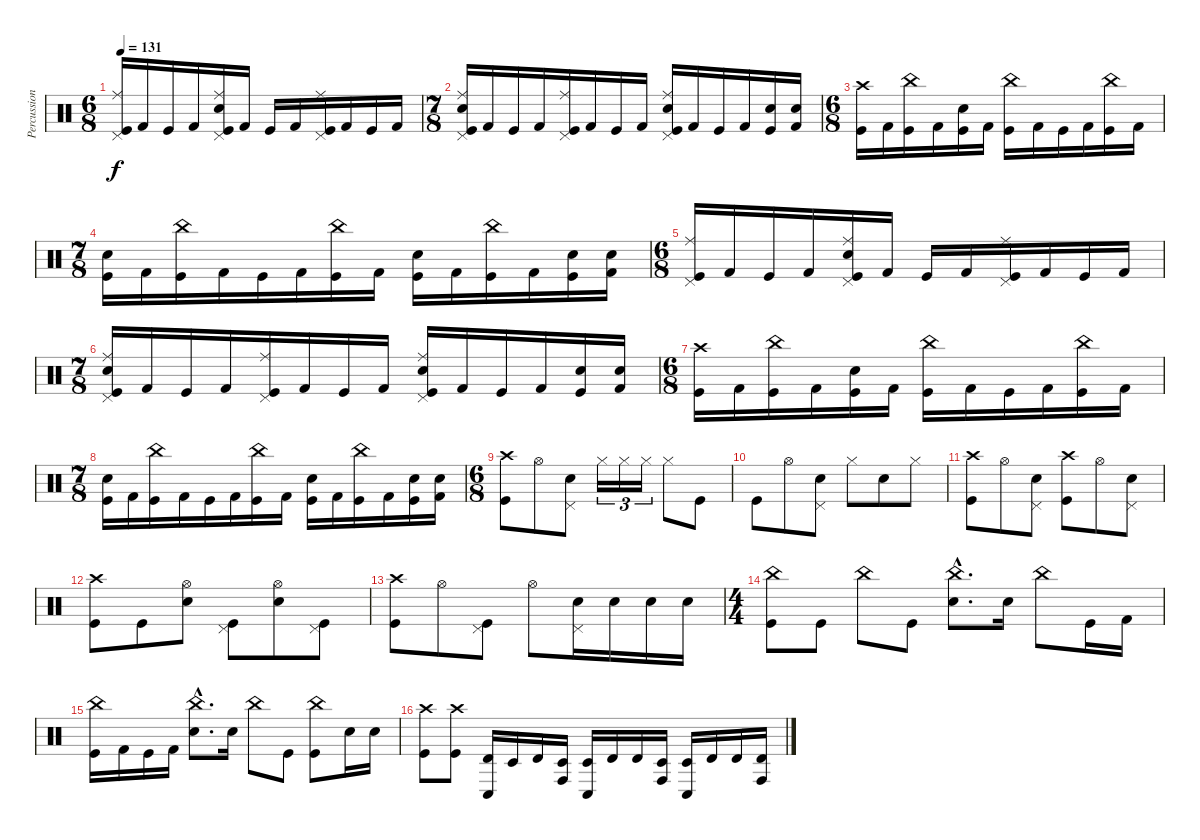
\track ("Percussion" "Percussion") {instrument percussion}
\staff {score}
\articulation defaults
\ts (6 8)
\tempo 131
\clef neutral
\ks c
("Pedal Hi-Hat (hit)" "Ride (middle)" "Kick (hit)").16{dy f} "Kick (hit) 2".16 "Kick (hit)".16 "Kick (hit) 2".16 ("Pedal Hi-Hat (hit)" "Ride (middle)" "Snare (hit) 2" "Kick (hit)").16 "Kick (hit) 2".16 "Kick (hit)".16 "Kick (hit) 2".16 ("Pedal Hi-Hat (hit)" "Ride (middle)" "Kick (hit)").16 "Kick (hit) 2".16 "Kick (hit)".16 "Kick (hit) 2".16 |
\ts (7 8)
("Pedal Hi-Hat (hit)" "Ride (middle)" "Snare (hit) 2" "Kick (hit)").16 "Kick (hit) 2".16 "Kick (hit)".16 "Kick (hit) 2".16 ("Pedal Hi-Hat (hit)" "Ride (middle)" "Kick (hit)").16 "Kick (hit) 2".16 "Kick (hit)".16 "Kick (hit) 2".16 ("Pedal Hi-Hat (hit)" "Ride (middle)" "Snare (hit) 2" "Kick (hit)").16 "Kick (hit) 2".16 "Kick (hit)".16 "Kick (hit) 2".16 ("Snare (hit) 2" "Kick (hit)").16 ("Snare (hit) 2" "Kick (hit) 2").16 |
\ts (6 8)
("Kick (hit)" "Crash high (hit)").16 "Kick (hit) 2".16 ("Kick (hit)" "China (hit)").16 "Kick (hit) 2".16 ("Kick (hit)" "Snare (hit) 2").16 "Kick (hit) 2".16 ("Kick (hit)" "China (hit)").16 "Kick (hit) 2".16 "Kick (hit)".16 "Kick (hit) 2".16 ("Kick (hit)" "China (hit)").16 "Kick (hit) 2".16 |
\ts (7 8)
("Snare (hit) 2" "Kick (hit)").16 "Kick (hit) 2".16 ("China (hit)" "Kick (hit)").16 "Kick (hit) 2".16 "Kick (hit)".16 "Kick (hit) 2".16 ("China (hit)" "Kick (hit)").16 "Kick (hit) 2".16 ("Snare (hit) 2" "Kick (hit)").16 "Kick (hit) 2".16 ("China (hit)" "Kick (hit)").16 "Kick (hit) 2".16 ("Snare (hit) 2" "Kick (hit)").16 ("Snare (hit) 2" "Kick (hit) 2").16 |
\ts (6 8)
("Pedal Hi-Hat (hit)" "Ride (middle)" "Kick (hit)").16 "Kick (hit) 2".16 "Kick (hit)".16 "Kick (hit) 2".16 ("Pedal Hi-Hat (hit)" "Ride (middle)" "Snare (hit) 2" "Kick (hit)").16 "Kick (hit) 2".16 "Kick (hit)".16 "Kick (hit) 2".16 ("Pedal Hi-Hat (hit)" "Ride (middle)" "Kick (hit)").16 "Kick (hit) 2".16 "Kick (hit)".16 "Kick (hit) 2".16 |
\ts (7 8)
("Pedal Hi-Hat (hit)" "Ride (middle)" "Snare (hit) 2" "Kick (hit)").16 "Kick (hit) 2".16 "Kick (hit)".16 "Kick (hit) 2".16 ("Pedal Hi-Hat (hit)" "Ride (middle)" "Kick (hit)").16 "Kick (hit) 2".16 "Kick (hit)".16 "Kick (hit) 2".16 ("Pedal Hi-Hat (hit)" "Ride (middle)" "Snare (hit) 2" "Kick (hit)").16 "Kick (hit) 2".16 "Kick (hit)".16 "Kick (hit) 2".16 ("Snare (hit) 2" "Kick (hit)").16 ("Snare (hit) 2" "Kick (hit) 2").16 |
\ts (6 8)
("Kick (hit)" "Crash high (hit)").16 "Kick (hit) 2".16 ("Kick (hit)" "China (hit)").16 "Kick (hit) 2".16 ("Kick (hit)" "Snare (hit) 2").16 "Kick (hit) 2".16 ("Kick (hit)" "China (hit)").16 "Kick (hit) 2".16 "Kick (hit)".16 "Kick (hit) 2".16 ("Kick (hit)" "China (hit)").16 "Kick (hit) 2".16 |
\ts (7 8)
("Snare (hit) 2" "Kick (hit)").16 "Kick (hit) 2".16 ("China (hit)" "Kick (hit)").16 "Kick (hit) 2".16 "Kick (hit)".16 "Kick (hit) 2".16 ("China (hit)" "Kick (hit)").16 "Kick (hit) 2".16 ("Snare (hit) 2" "Kick (hit)").16 "Kick (hit) 2".16 ("China (hit)" "Kick (hit)").16 "Kick (hit) 2".16 ("Snare (hit) 2" "Kick (hit)").16 ("Snare (hit) 2" "Kick (hit) 2").16 |
\ts (6 8)
("Crash high (hit)" "Kick (hit)").8 "Hi-Hat (open)".8 ("Snare (hit) 2" "Pedal Hi-Hat (hit)").8 "Hi-Hat (closed)".16{tu (3 2)} "Hi-Hat (closed)".16{tu (3 2)} "Hi-Hat (closed)".16{tu (3 2)} "Hi-Hat (closed)".8 "Kick (hit)".8 |
"Kick (hit)".8 "Hi-Hat (open)".8 ("Snare (hit) 2" "Pedal Hi-Hat (hit)").8 "Hi-Hat (closed)".8 "Snare (hit) 2".8 "Hi-Hat (closed)".8 |
("Crash high (hit)" "Kick (hit)").8 "Hi-Hat (open)".8 ("Snare (hit) 2" "Pedal Hi-Hat (hit)").8 ("Crash high (hit)" "Kick (hit)").8 "Hi-Hat (open)".8 ("Snare (hit) 2" "Pedal Hi-Hat (hit)").8 |
("Kick (hit)" "Crash high (hit)").8 "Kick (hit)".8 ("Hi-Hat (open)" "Snare (hit) 2").8 ("Kick (hit)" "Pedal Hi-Hat (hit)").8 ("Electric Snare (hit)" "Hi-Hat (open)").8 ("Kick (hit)" "Pedal Hi-Hat (hit)").8 |
("Kick (hit)" "Crash high (hit)").8 "Hi-Hat (open)".8 ("Kick (hit)" "Pedal Hi-Hat (hit)").8 "Hi-Hat (open)".8 ("Snare (hit) 2" "Pedal Hi-Hat (hit)").16 "Snare (hit) 2".16 "Snare (hit) 2".16 "Snare (hit) 2".16 |
\ts (4 4)
("China (hit)" "Kick (hit)").8 "Kick (hit)".8 "China (hit)".8 "Kick (hit)".8 ("Snare (hit) 2"{hac} "China (hit)"{hac}).8{d} "Snare (hit) 2".16 "China (hit)".8 "Kick (hit)".16 "Kick (hit) 2".16 |
("China (hit)" "Kick (hit)").16 "Kick (hit) 2".16 "Kick (hit)".16 "Kick (hit) 2".16 ("China (hit)"{hac} "Snare (hit) 2"{hac}).8{d} "Snare (hit) 2".16 "China (hit)".8 "Kick (hit)".8 ("China (hit)" "Kick (hit)").8 "Snare (hit) 2".16 "Snare (hit) 2".16 |
("Crash high (hit)" "Kick (hit)").8 ("Crash high (hit)" "Kick (hit)").8 ("Conga low (hit)" "Timbale high (hit)").16 "Timbale low (hit)".16 "Timbale high (hit)".16 ("Conga high (hit)" "Timbale low (hit)").16 ("Conga low (hit)" "Timbale low (hit)").16 "Timbale high (hit)".16 "Timbale high (hit)".16 ("Conga high (hit)" "Timbale low (hit)").16 ("Conga low (hit)" "Timbale low (hit)").16 "Timbale high (hit)".16 "Timbale high (hit)".16 ("Conga high (hit)" "Timbale high (hit)").16
